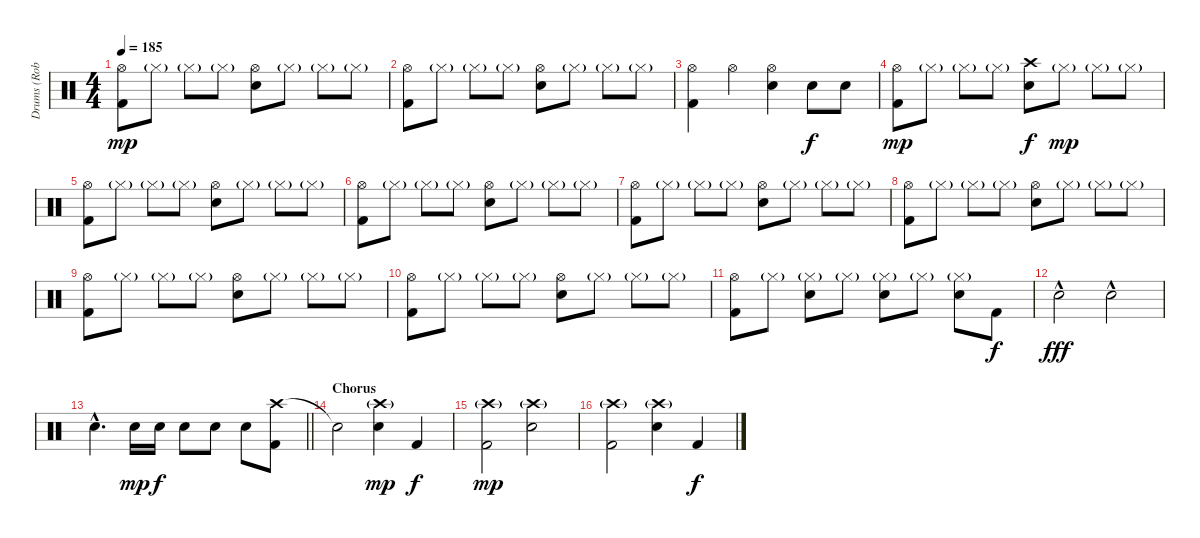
\track ("Drums (Robert Ortiz)" "Drums (Rob") {instrument percussion}
\staff {score}
\articulation defaults
\ts (4 4)
\tempo 185
\clef neutral
\ks c
("Hi-Hat (open)" "Kick (hit) 2").8{dy mp} "Hi-Hat (closed)"{g}.8 "Hi-Hat (closed)"{g}.8 "Hi-Hat (closed)"{g}.8 ("Hi-Hat (open)" "Electric Snare (hit)").8 "Hi-Hat (closed)"{g}.8 "Hi-Hat (closed)"{g}.8 "Hi-Hat (closed)"{g}.8 |
("Hi-Hat (open)" "Kick (hit) 2").8 "Hi-Hat (closed)"{g}.8 "Hi-Hat (closed)"{g}.8 "Hi-Hat (closed)"{g}.8 ("Hi-Hat (open)" "Electric Snare (hit)").8 "Hi-Hat (closed)"{g}.8 "Hi-Hat (closed)"{g}.8 "Hi-Hat (closed)"{g}.8 |
("Hi-Hat (open)" "Kick (hit) 2").4 "Hi-Hat (open)".4 ("Hi-Hat (open)" "Electric Snare (hit)").4 "Electric Snare (hit)".8{dy f} "Electric Snare (hit)".8 |
("Hi-Hat (open)" "Kick (hit) 2").8{dy mp} "Hi-Hat (closed)"{g}.8 "Hi-Hat (closed)"{g}.8 "Hi-Hat (closed)"{g}.8 ("Crash high (hit)" "Electric Snare (hit)").8{dy f} "Hi-Hat (closed)"{g}.8{dy mp} "Hi-Hat (closed)"{g}.8 "Hi-Hat (closed)"{g}.8 |
("Hi-Hat (open)" "Kick (hit) 2").8 "Hi-Hat (closed)"{g}.8 "Hi-Hat (closed)"{g}.8 "Hi-Hat (closed)"{g}.8 ("Hi-Hat (open)" "Electric Snare (hit)").8 "Hi-Hat (closed)"{g}.8 "Hi-Hat (closed)"{g}.8 "Hi-Hat (closed)"{g}.8 |
("Hi-Hat (open)" "Kick (hit) 2").8 "Hi-Hat (closed)"{g}.8 "Hi-Hat (closed)"{g}.8 "Hi-Hat (closed)"{g}.8 ("Hi-Hat (open)" "Electric Snare (hit)").8 "Hi-Hat (closed)"{g}.8 "Hi-Hat (closed)"{g}.8 "Hi-Hat (closed)"{g}.8 |
("Hi-Hat (open)" "Kick (hit) 2").8 "Hi-Hat (closed)"{g}.8 "Hi-Hat (closed)"{g}.8 "Hi-Hat (closed)"{g}.8 ("Hi-Hat (open)" "Electric Snare (hit)").8 "Hi-Hat (closed)"{g}.8 "Hi-Hat (closed)"{g}.8 "Hi-Hat (closed)"{g}.8 |
("Hi-Hat (open)" "Kick (hit) 2").8 "Hi-Hat (closed)"{g}.8 "Hi-Hat (closed)"{g}.8 "Hi-Hat (closed)"{g}.8 ("Hi-Hat (open)" "Electric Snare (hit)").8 "Hi-Hat (closed)"{g}.8 "Hi-Hat (closed)"{g}.8 "Hi-Hat (closed)"{g}.8 |
("Hi-Hat (open)" "Kick (hit) 2").8 "Hi-Hat (closed)"{g}.8 "Hi-Hat (closed)"{g}.8 "Hi-Hat (closed)"{g}.8 ("Hi-Hat (open)" "Electric Snare (hit)").8 "Hi-Hat (closed)"{g}.8 "Hi-Hat (closed)"{g}.8 "Hi-Hat (closed)"{g}.8 |
("Hi-Hat (open)" "Kick (hit) 2").8 "Hi-Hat (closed)"{g}.8 "Hi-Hat (closed)"{g}.8 "Hi-Hat (closed)"{g}.8 ("Hi-Hat (open)" "Electric Snare (hit)").8 "Hi-Hat (closed)"{g}.8 "Hi-Hat (closed)"{g}.8 "Hi-Hat (closed)"{g}.8 |
("Hi-Hat (open)" "Kick (hit) 2").8 "Hi-Hat (closed)"{g}.8 ("Hi-Hat (closed)"{g} "Electric Snare (hit)").8 "Hi-Hat (closed)"{g}.8 ("Hi-Hat (closed)"{g} "Electric Snare (hit)").8 "Hi-Hat (closed)"{g}.8 ("Hi-Hat (closed)"{g} "Electric Snare (hit)").8 "Kick (hit) 2".8{dy f} |
"Electric Snare (hit)"{hac}.2{dy fff} "Electric Snare (hit)"{hac}.2 |
\barLineRight lightlight "Electric Snare (hit)"{hac}.4{d} "Electric Snare (hit)".16{dy mp} "Electric Snare (hit)".16{dy f} "Electric Snare (hit)".8 "Electric Snare (hit)".8 "Electric Snare (hit)".8
("Crash high (hit)" "Kick (hit) 2").8 |
\section ("" "Chorus")
"Snare (hit)"{t}.2 ("Crash high (hit)"{g} "Electric Snare (hit)").4{dy mp} "Kick (hit) 2".4{dy f} |
("Crash high (hit)"{g} "Kick (hit) 2").2{dy mp} ("Crash high (hit)"{g} "Electric Snare (hit)").2 |
("Crash high (hit)"{g} "Kick (hit) 2").2 ("Crash high (hit)"{g} "Electric Snare (hit)").4 "Kick (hit) 2".4{dy f}
